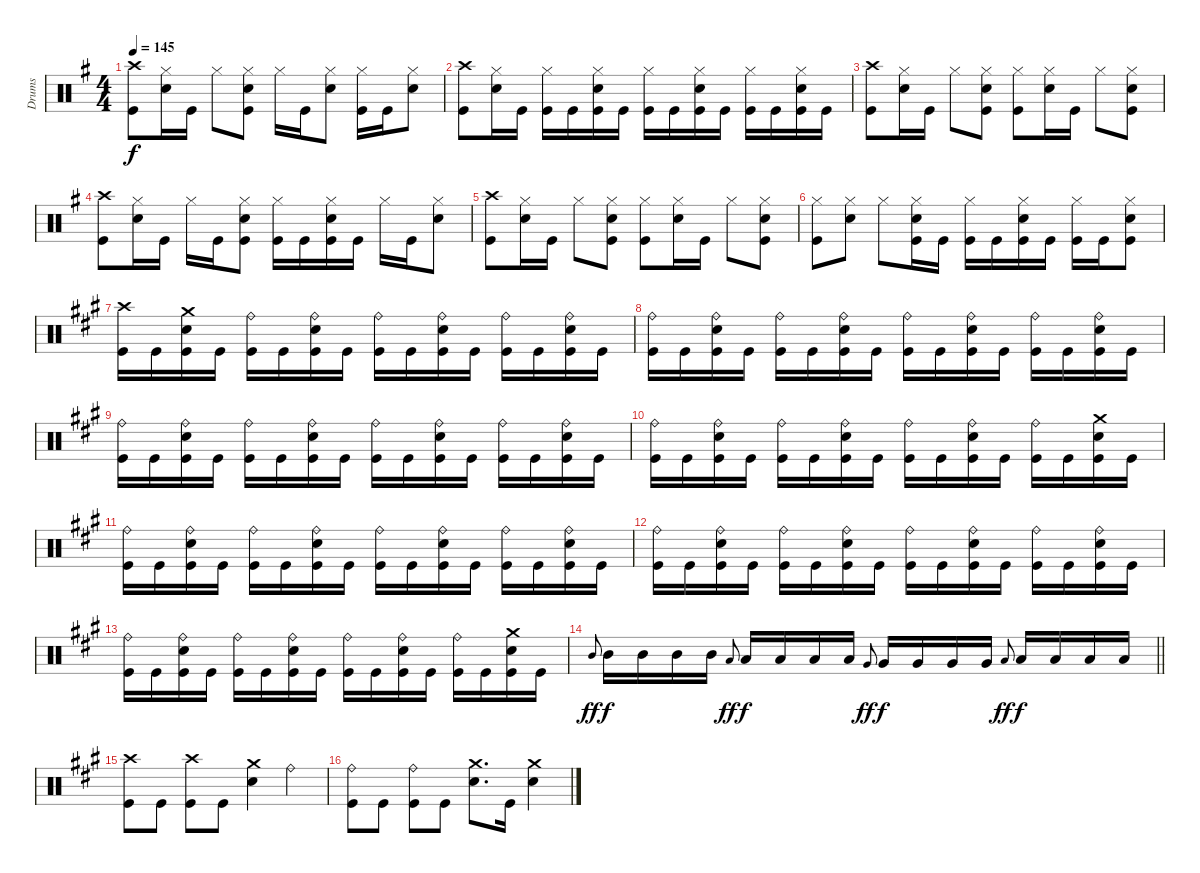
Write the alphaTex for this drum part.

\track ("Drums" "Drums") {instrument percussion}
\staff {score}
\articulation defaults
\ts (4 4)
\tempo 145
\clef neutral
\ks eminor
("Crash high (hit)" "Kick (hit)").8{dy f} ("Hi-Hat (closed)" "Snare (hit) 2").16 "Kick (hit)".16 "Hi-Hat (closed)".8 ("Hi-Hat (closed)" "Snare (hit) 2" "Kick (hit)").8 "Hi-Hat (closed)".16 "Kick (hit)".16 ("Hi-Hat (closed)" "Snare (hit) 2").8 ("Hi-Hat (closed)" "Kick (hit)").16 "Kick (hit)".16 ("Hi-Hat (closed)" "Snare (hit) 2").8 |
("Crash high (hit)" "Kick (hit)").8 ("Hi-Hat (closed)" "Snare (hit) 2").16 "Kick (hit)".16 ("Hi-Hat (closed)" "Kick (hit)").16 "Kick (hit)".16 ("Hi-Hat (closed)" "Snare (hit) 2" "Kick (hit)").16 "Kick (hit)".16 ("Hi-Hat (closed)" "Kick (hit)").16 "Kick (hit)".16 ("Hi-Hat (closed)" "Snare (hit) 2" "Kick (hit)").16 "Kick (hit)".16 ("Hi-Hat (closed)" "Kick (hit)").16 "Kick (hit)".16 ("Hi-Hat (closed)" "Snare (hit) 2" "Kick (hit)").16 "Kick (hit)".16 |
("Crash high (hit)" "Kick (hit)").8 ("Hi-Hat (closed)" "Snare (hit) 2").16 "Kick (hit)".16 "Hi-Hat (closed)".8 ("Hi-Hat (closed)" "Snare (hit) 2" "Kick (hit)").8 ("Hi-Hat (closed)" "Kick (hit)").8 ("Hi-Hat (closed)" "Snare (hit) 2").16 "Kick (hit)".16 "Hi-Hat (closed)".8 ("Hi-Hat (closed)" "Snare (hit) 2" "Kick (hit)").8 |
("Crash high (hit)" "Kick (hit)").8 ("Hi-Hat (closed)" "Snare (hit) 2").16 "Kick (hit)".16 "Hi-Hat (closed)".16 "Kick (hit)".16 ("Hi-Hat (closed)" "Snare (hit) 2" "Kick (hit)").8 ("Hi-Hat (closed)" "Kick (hit)").16 "Kick (hit)".16 ("Hi-Hat (closed)" "Snare (hit) 2" "Kick (hit)").16 "Kick (hit)".16 "Hi-Hat (closed)".16 "Kick (hit)".16 ("Hi-Hat (closed)" "Snare (hit) 2").8 |
("Crash high (hit)" "Kick (hit)").8 ("Hi-Hat (closed)" "Snare (hit) 2").16 "Kick (hit)".16 "Hi-Hat (closed)".8 ("Hi-Hat (closed)" "Snare (hit) 2" "Kick (hit)").8 ("Hi-Hat (closed)" "Kick (hit)").8 ("Hi-Hat (closed)" "Snare (hit) 2").16 "Kick (hit)".16 "Hi-Hat (closed)".8 ("Hi-Hat (closed)" "Snare (hit) 2" "Kick (hit)").8 |
("Hi-Hat (closed)" "Kick (hit)").8 ("Hi-Hat (closed)" "Snare (hit) 2").8 "Hi-Hat (closed)".8 ("Hi-Hat (closed)" "Snare (hit) 2" "Kick (hit)").16 "Kick (hit)".16 ("Hi-Hat (closed)" "Kick (hit)").16 "Kick (hit)".16 ("Hi-Hat (closed)" "Snare (hit) 2" "Kick (hit)").16 "Kick (hit)".16 ("Hi-Hat (closed)" "Kick (hit)").16 "Kick (hit)".16 ("Hi-Hat (closed)" "Snare (hit) 2" "Kick (hit)").8 |
\ks f#minor
("Crash high (hit)" "Kick (hit)").16 "Kick (hit)".16 ("Crash medium (hit)" "Snare (hit) 2" "Kick (hit)").16 "Kick (hit)".16 ("Ride (bell)" "Kick (hit)").16 "Kick (hit)".16 ("Ride (bell)" "Snare (hit) 2" "Kick (hit)").16 "Kick (hit)".16 ("Ride (bell)" "Kick (hit)").16 "Kick (hit)".16 ("Ride (bell)" "Snare (hit) 2" "Kick (hit)").16 "Kick (hit)".16 ("Ride (bell)" "Kick (hit)").16 "Kick (hit)".16 ("Ride (bell)" "Snare (hit) 2" "Kick (hit)").16 "Kick (hit)".16 |
("Ride (bell)" "Kick (hit)").16 "Kick (hit)".16 ("Ride (bell)" "Snare (hit) 2" "Kick (hit)").16 "Kick (hit)".16 ("Ride (bell)" "Kick (hit)").16 "Kick (hit)".16 ("Ride (bell)" "Snare (hit) 2" "Kick (hit)").16 "Kick (hit)".16 ("Ride (bell)" "Kick (hit)").16 "Kick (hit)".16 ("Ride (bell)" "Snare (hit) 2" "Kick (hit)").16 "Kick (hit)".16 ("Ride (bell)" "Kick (hit)").16 "Kick (hit)".16 ("Ride (bell)" "Snare (hit) 2" "Kick (hit)").16 "Kick (hit)".16 |
("Ride (bell)" "Kick (hit)").16 "Kick (hit)".16 ("Ride (bell)" "Snare (hit) 2" "Kick (hit)").16 "Kick (hit)".16 ("Ride (bell)" "Kick (hit)").16 "Kick (hit)".16 ("Ride (bell)" "Snare (hit) 2" "Kick (hit)").16 "Kick (hit)".16 ("Ride (bell)" "Kick (hit)").16 "Kick (hit)".16 ("Ride (bell)" "Snare (hit) 2" "Kick (hit)").16 "Kick (hit)".16 ("Ride (bell)" "Kick (hit)").16 "Kick (hit)".16 ("Ride (bell)" "Snare (hit) 2" "Kick (hit)").16 "Kick (hit)".16 |
("Ride (bell)" "Kick (hit)").16 "Kick (hit)".16 ("Ride (bell)" "Snare (hit) 2" "Kick (hit)").16 "Kick (hit)".16 ("Ride (bell)" "Kick (hit)").16 "Kick (hit)".16 ("Ride (bell)" "Snare (hit) 2" "Kick (hit)").16 "Kick (hit)".16 ("Ride (bell)" "Kick (hit)").16 "Kick (hit)".16 ("Ride (bell)" "Snare (hit) 2" "Kick (hit)").16 "Kick (hit)".16 ("Ride (bell)" "Kick (hit)").16 "Kick (hit)".16 ("Crash medium (hit)" "Snare (hit) 2" "Kick (hit)").16 "Kick (hit)".16 |
("Ride (bell)" "Kick (hit)").16 "Kick (hit)".16 ("Ride (bell)" "Snare (hit) 2" "Kick (hit)").16 "Kick (hit)".16 ("Ride (bell)" "Kick (hit)").16 "Kick (hit)".16 ("Ride (bell)" "Snare (hit) 2" "Kick (hit)").16 "Kick (hit)".16 ("Ride (bell)" "Kick (hit)").16 "Kick (hit)".16 ("Ride (bell)" "Snare (hit) 2" "Kick (hit)").16 "Kick (hit)".16 ("Ride (bell)" "Kick (hit)").16 "Kick (hit)".16 ("Ride (bell)" "Snare (hit) 2" "Kick (hit)").16 "Kick (hit)".16 |
("Ride (bell)" "Kick (hit)").16 "Kick (hit)".16 ("Ride (bell)" "Snare (hit) 2" "Kick (hit)").16 "Kick (hit)".16 ("Ride (bell)" "Kick (hit)").16 "Kick (hit)".16 ("Ride (bell)" "Snare (hit) 2" "Kick (hit)").16 "Kick (hit)".16 ("Ride (bell)" "Kick (hit)").16 "Kick (hit)".16 ("Ride (bell)" "Snare (hit) 2" "Kick (hit)").16 "Kick (hit)".16 ("Ride (bell)" "Kick (hit)").16 "Kick (hit)".16 ("Ride (bell)" "Snare (hit) 2" "Kick (hit)").16 "Kick (hit)".16 |
("Ride (bell)" "Kick (hit)").16 "Kick (hit)".16 ("Ride (bell)" "Snare (hit) 2" "Kick (hit)").16 "Kick (hit)".16 ("Ride (bell)" "Kick (hit)").16 "Kick (hit)".16 ("Ride (bell)" "Snare (hit) 2" "Kick (hit)").16 "Kick (hit)".16 ("Ride (bell)" "Kick (hit)").16 "Kick (hit)".16 ("Ride (bell)" "Snare (hit) 2" "Kick (hit)").16 "Kick (hit)".16 ("Ride (bell)" "Kick (hit)").16 "Kick (hit)".16 ("Crash medium (hit)" "Snare (hit) 2" "Kick (hit)").16 "Kick (hit)".16 |
\barLineRight lightlight "Mid Tom (hit)".8{gr onbeat dy ff} "Mid Tom (hit)".16{dy f} "Mid Tom (hit)".16 "Mid Tom (hit)".16 "Mid Tom (hit)".16 "Low Tom (hit)".8{gr onbeat dy ff} "Low Tom (hit)".16{dy f} "Low Tom (hit)".16 "Low Tom (hit)".16 "Low Tom (hit)".16 "Very Low Tom (hit)".8{gr onbeat dy ff} "Very Low Tom (hit)".16{dy f} "Very Low Tom (hit)".16 "Very Low Tom (hit)".16 "Very Low Tom (hit)".16 "Low Floor Tom (hit)".8{gr onbeat dy ff} "Low Floor Tom (hit)".16{dy f} "Low Floor Tom (hit)".16 "Low Floor Tom (hit)".16 "Low Floor Tom (hit)".16
|
("Crash high (hit)" "Kick (hit)").8 "Kick (hit)".8 ("Crash high (hit)" "Kick (hit)").8 "Kick (hit)".8 ("Crash medium (hit)" "Snare (hit) 2").4 "Ride (bell)".4 |
("Ride (bell)" "Kick (hit)").8 "Kick (hit)".8 ("Ride (bell)" "Kick (hit)").8 "Kick (hit)".8 ("Crash medium (hit)" "Snare (hit) 2").8{d} "Kick (hit)".16 ("Crash medium (hit)" "Snare (hit) 2").4
